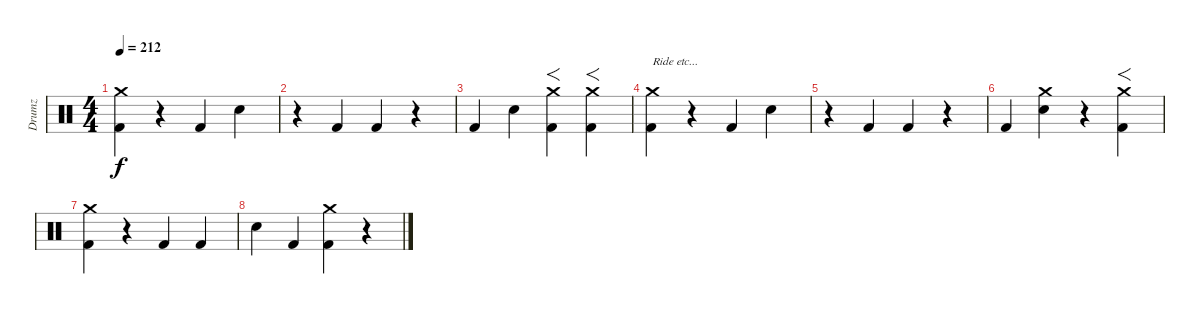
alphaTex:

\track ("Drumz" "Drumz") {instrument percussion}
\staff {score}
\articulation defaults
\ts (4 4)
\tempo 212
\clef neutral
\ks c
("Kick (hit) 2" "Crash medium (hit)").4{dy f} r.4 "Kick (hit) 2".4 "Snare (hit) 2".4 |
r.4 "Kick (hit) 2".4 "Kick (hit) 2".4 r.4 |
"Kick (hit) 2".4 "Snare (hit) 2".4 ("Kick (hit) 2" "Crash medium (hit)").4{f} ("Kick (hit) 2" "Crash medium (hit)").4{f} |
("Kick (hit) 2" "Crash medium (hit)").4{txt "Ride etc..."} r.4 "Kick (hit) 2".4 "Snare (hit) 2".4 |
r.4 "Kick (hit) 2".4 "Kick (hit) 2".4 r.4 |
"Kick (hit) 2".4 ("Snare (hit) 2" "Crash medium (hit)").4 r.4 ("Kick (hit) 2" "Crash medium (hit)").4{f} |
("Kick (hit) 2" "Crash medium (hit)").4 r.4 "Kick (hit) 2".4 "Kick (hit) 2".4 |
"Snare (hit) 2".4 "Kick (hit) 2".4 ("Kick (hit) 2" "Crash medium (hit)").4 r.4
